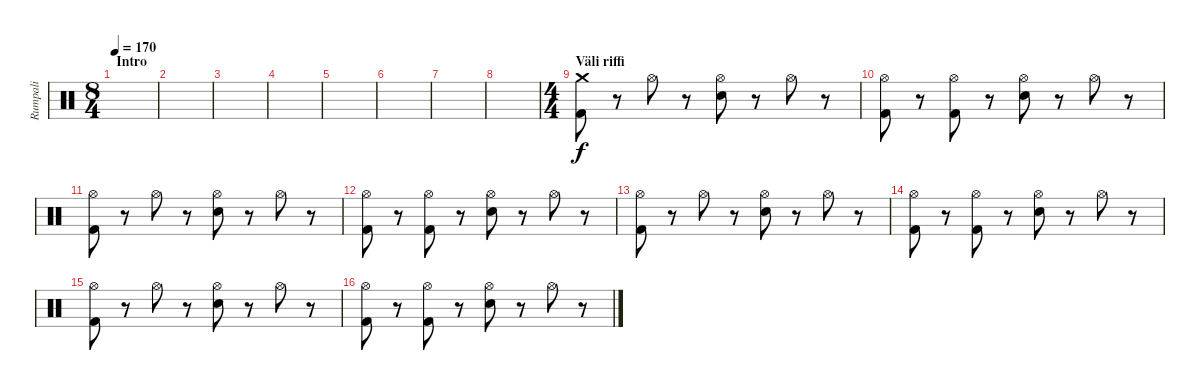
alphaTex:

\track ("Rumpali" "Rumpali") {instrument percussion}
\staff {score}
\articulation defaults
\ts (8 4)
\section ("" "Intro")
\tempo 170
\clef neutral
\ks c
|
|
|
|
|
|
|
|
\ts (4 4)
\section ("" "Väli riffi")
("Crash medium (hit)" "Kick (hit) 2").8 r.8 "Hi-Hat (open)".8 r.8 ("Hi-Hat (open)" "Electric Snare (hit)").8 r.8 "Hi-Hat (open)".8 r.8 |
("Hi-Hat (open)" "Kick (hit) 2").8 r.8 ("Hi-Hat (open)" "Kick (hit) 2").8 r.8 ("Hi-Hat (open)" "Electric Snare (hit)").8 r.8 "Hi-Hat (open)".8 r.8 |
("Hi-Hat (open)" "Kick (hit) 2").8 r.8 "Hi-Hat (open)".8 r.8 ("Hi-Hat (open)" "Electric Snare (hit)").8 r.8 "Hi-Hat (open)".8 r.8 |
("Hi-Hat (open)" "Kick (hit) 2").8 r.8 ("Hi-Hat (open)" "Kick (hit) 2").8 r.8 ("Hi-Hat (open)" "Electric Snare (hit)").8 r.8 "Hi-Hat (open)".8 r.8 |
("Hi-Hat (open)" "Kick (hit) 2").8 r.8 "Hi-Hat (open)".8 r.8 ("Hi-Hat (open)" "Electric Snare (hit)").8 r.8 "Hi-Hat (open)".8 r.8 |
("Hi-Hat (open)" "Kick (hit) 2").8 r.8 ("Hi-Hat (open)" "Kick (hit) 2").8 r.8 ("Hi-Hat (open)" "Electric Snare (hit)").8 r.8 "Hi-Hat (open)".8 r.8 |
("Hi-Hat (open)" "Kick (hit) 2").8 r.8 "Hi-Hat (open)".8 r.8 ("Hi-Hat (open)" "Electric Snare (hit)").8 r.8 "Hi-Hat (open)".8 r.8 |
("Hi-Hat (open)" "Kick (hit) 2").8 r.8 ("Hi-Hat (open)" "Kick (hit) 2").8 r.8 ("Hi-Hat (open)" "Electric Snare (hit)").8 r.8 "Hi-Hat (open)".8 r.8
